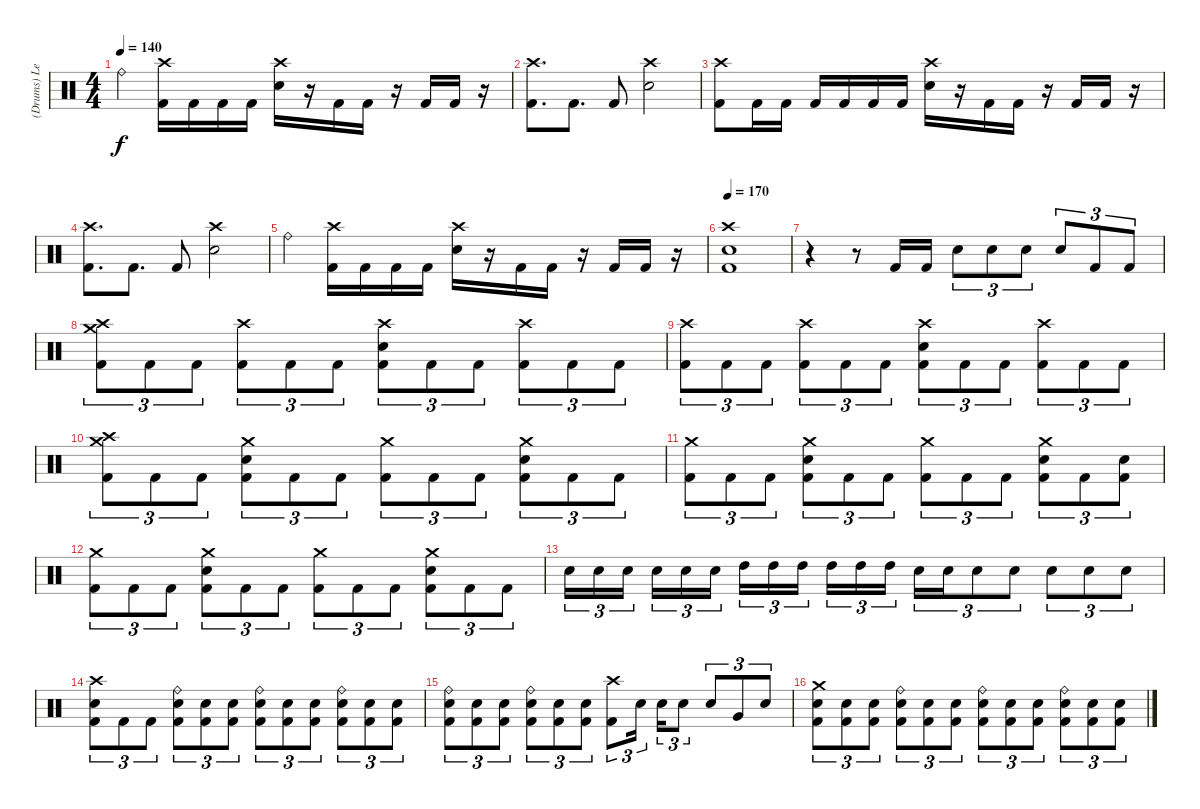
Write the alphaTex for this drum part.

\track ("(Drums) Leche" "(Drums) Le") {instrument percussion}
\staff {score}
\articulation defaults
\ts (4 4)
\tempo 140
\clef neutral
\ks c "Ride (bell)".4{dy f}
("Crash high (hit)" "Kick (hit) 2").16 "Kick (hit) 2".16 "Kick (hit) 2".16 "Kick (hit) 2".16 ("Crash high (hit)" "Electric Snare (hit)").16 r.16 "Kick (hit) 2".16 "Kick (hit) 2".16 r.16 "Kick (hit) 2".16 "Kick (hit) 2".16 r.16 |
("Crash high (hit)" "Kick (hit) 2").8{d} "Kick (hit) 2".8{d} "Kick (hit) 2".8 ("Crash high (hit)" "Electric Snare (hit)").2 |
("Crash high (hit)" "Kick (hit) 2").8 "Kick (hit) 2".16 "Kick (hit) 2".16 "Kick (hit) 2".16 "Kick (hit) 2".16 "Kick (hit) 2".16 "Kick (hit) 2".16 ("Crash high (hit)" "Electric Snare (hit)").16 r.16 "Kick (hit) 2".16 "Kick (hit) 2".16 r.16 "Kick (hit) 2".16 "Kick (hit) 2".16 r.16 |
("Crash high (hit)" "Kick (hit) 2").8{d} "Kick (hit) 2".8{d} "Kick (hit) 2".8 ("Crash high (hit)" "Electric Snare (hit)").2 |
"Ride (bell)".4 ("Crash high (hit)" "Kick (hit) 2").16 "Kick (hit) 2".16 "Kick (hit) 2".16 "Kick (hit) 2".16 ("Crash high (hit)" "Electric Snare (hit)").16 r.16 "Kick (hit) 2".16 "Kick (hit) 2".16 r.16 "Kick (hit) 2".16 "Kick (hit) 2".16 r.16 |
\tempo 170
("Crash high (hit)" "Electric Snare (hit)" "Kick (hit) 2").1 |
r.4 r.8 "Kick (hit) 2".16 "Kick (hit) 2".16 "Electric Snare (hit)".8{tu (3 2)} "Electric Snare (hit)".8{tu (3 2)} "Electric Snare (hit)".8{tu (3 2)} "Electric Snare (hit)".8{tu (3 2)} "Kick (hit) 2".8{tu (3 2)} "Kick (hit) 2".8{tu (3 2)} |
("Crash medium (hit)" "Crash high (hit)" "Kick (hit) 2").8{tu (3 2)} "Kick (hit) 2".8{tu (3 2)} "Kick (hit) 2".8{tu (3 2)} ("Crash high (hit)" "Kick (hit) 2").8{tu (3 2)} "Kick (hit) 2".8{tu (3 2)} "Kick (hit) 2".8{tu (3 2)} ("Crash high (hit)" "Electric Snare (hit)" "Kick (hit) 2").8{tu (3 2)} "Kick (hit) 2".8{tu (3 2)} "Kick (hit) 2".8{tu (3 2)} ("Crash high (hit)" "Kick (hit) 2").8{tu (3 2)} "Kick (hit) 2".8{tu (3 2)} "Kick (hit) 2".8{tu (3 2)} |
("Crash high (hit)" "Kick (hit) 2").8{tu (3 2)} "Kick (hit) 2".8{tu (3 2)} "Kick (hit) 2".8{tu (3 2)} ("Crash high (hit)" "Kick (hit) 2").8{tu (3 2)} "Kick (hit) 2".8{tu (3 2)} "Kick (hit) 2".8{tu (3 2)} ("Crash high (hit)" "Electric Snare (hit)" "Kick (hit) 2").8{tu (3 2)} "Kick (hit) 2".8{tu (3 2)} "Kick (hit) 2".8{tu (3 2)} ("Crash high (hit)" "Kick (hit) 2").8{tu (3 2)} "Kick (hit) 2".8{tu (3 2)} "Kick (hit) 2".8{tu (3 2)} |
("Crash high (hit)" "Crash medium (hit)" "Kick (hit) 2").8{tu (3 2)} "Kick (hit) 2".8{tu (3 2)} "Kick (hit) 2".8{tu (3 2)} ("Crash medium (hit)" "Electric Snare (hit)" "Kick (hit) 2").8{tu (3 2)} "Kick (hit) 2".8{tu (3 2)} "Kick (hit) 2".8{tu (3 2)} ("Crash medium (hit)" "Kick (hit) 2").8{tu (3 2)} "Kick (hit) 2".8{tu (3 2)} "Kick (hit) 2".8{tu (3 2)} ("Crash medium (hit)" "Electric Snare (hit)" "Kick (hit) 2").8{tu (3 2)} "Kick (hit) 2".8{tu (3 2)} "Kick (hit) 2".8{tu (3 2)} |
("Crash medium (hit)" "Kick (hit) 2").8{tu (3 2)} "Kick (hit) 2".8{tu (3 2)} "Kick (hit) 2".8{tu (3 2)} ("Crash medium (hit)" "Electric Snare (hit)" "Kick (hit) 2").8{tu (3 2)} "Kick (hit) 2".8{tu (3 2)} "Kick (hit) 2".8{tu (3 2)} ("Crash medium (hit)" "Kick (hit) 2").8{tu (3 2)} "Kick (hit) 2".8{tu (3 2)} "Kick (hit) 2".8{tu (3 2)} ("Crash medium (hit)" "Electric Snare (hit)" "Kick (hit) 2").8{tu (3 2)} "Kick (hit) 2".8{tu (3 2)} ("Electric Snare (hit)" "Kick (hit) 2").8{tu (3 2)} |
("Crash medium (hit)" "Kick (hit) 2").8{tu (3 2)} "Kick (hit) 2".8{tu (3 2)} "Kick (hit) 2".8{tu (3 2)} ("Crash medium (hit)" "Electric Snare (hit)" "Kick (hit) 2").8{tu (3 2)} "Kick (hit) 2".8{tu (3 2)} "Kick (hit) 2".8{tu (3 2)} ("Crash medium (hit)" "Kick (hit) 2").8{tu (3 2)} "Kick (hit) 2".8{tu (3 2)} "Kick (hit) 2".8{tu (3 2)} ("Crash medium (hit)" "Electric Snare (hit)" "Kick (hit) 2").8{tu (3 2)} "Kick (hit) 2".8{tu (3 2)} "Kick (hit) 2".8{tu (3 2)} |
"Electric Snare (hit)".16{tu (3 2)} "Electric Snare (hit)".16{tu (3 2)} "Electric Snare (hit)".16{tu (3 2) beam splitsecondary} "Electric Snare (hit)".16{tu (3 2)} "Electric Snare (hit)".16{tu (3 2)} "Electric Snare (hit)".16{tu (3 2)} "High Tom (hit)".16{tu (3 2)} "High Tom (hit)".16{tu (3 2)} "High Tom (hit)".16{tu (3 2) beam splitsecondary} "High Tom (hit)".16{tu (3 2)} "High Tom (hit)".16{tu (3 2)} "High Tom (hit)".16{tu (3 2)} "Electric Snare (hit)".16{tu (3 2)} "Electric Snare (hit)".16{tu (3 2)} "Electric Snare (hit)".8{tu (3 2)} "Electric Snare (hit)".8{tu (3 2)} "Electric Snare (hit)".8{tu (3 2)} "Electric Snare (hit)".8{tu (3 2)} "Electric Snare (hit)".8{tu (3 2)} |
("Crash high (hit)" "Electric Snare (hit)" "Kick (hit) 2").8{tu (3 2)} "Kick (hit) 2".8{tu (3 2)} "Kick (hit) 2".8{tu (3 2)} ("Ride (bell)" "Electric Snare (hit)" "Kick (hit) 2").8{tu (3 2)} ("Electric Snare (hit)" "Kick (hit) 2").8{tu (3 2)} ("Electric Snare (hit)" "Kick (hit) 2").8{tu (3 2)} ("Ride (bell)" "Electric Snare (hit)" "Kick (hit) 2").8{tu (3 2)} ("Electric Snare (hit)" "Kick (hit) 2").8{tu (3 2)} ("Electric Snare (hit)" "Kick (hit) 2").8{tu (3 2)} ("Ride (bell)" "Electric Snare (hit)" "Kick (hit) 2").8{tu (3 2)} ("Electric Snare (hit)" "Kick (hit) 2").8{tu (3 2)} ("Electric Snare (hit)" "Kick (hit) 2").8{tu (3 2)} |
("Ride (bell)" "Electric Snare (hit)" "Kick (hit) 2").8{tu (3 2)} ("Electric Snare (hit)" "Kick (hit) 2").8{tu (3 2)} ("Electric Snare (hit)" "Kick (hit) 2").8{tu (3 2)} ("Ride (bell)" "Electric Snare (hit)" "Kick (hit) 2").8{tu (3 2)} ("Electric Snare (hit)" "Kick (hit) 2").8{tu (3 2)} ("Electric Snare (hit)" "Kick (hit) 2").8{tu (3 2)} ("Crash high (hit)" "Kick (hit) 2").8{tu (3 2)} "Electric Snare (hit)".16{tu (3 2) beam splitsecondary} "Electric Snare (hit)".16{tu (3 2)} "Electric Snare (hit)".8{tu (3 2)} "Electric Snare (hit)".8{tu (3 2)} "Very Low Tom (hit)".8{tu (3 2)} "Electric Snare (hit)".8{tu (3 2)} |
("Crash medium (hit)" "Electric Snare (hit)" "Kick (hit) 2").8{tu (3 2)} ("Electric Snare (hit)" "Kick (hit) 2").8{tu (3 2)} ("Electric Snare (hit)" "Kick (hit) 2").8{tu (3 2)} ("Ride (bell)" "Electric Snare (hit)" "Kick (hit) 2").8{tu (3 2)} ("Electric Snare (hit)" "Kick (hit) 2").8{tu (3 2)} ("Electric Snare (hit)" "Kick (hit) 2").8{tu (3 2)} ("Ride (bell)" "Electric Snare (hit)" "Kick (hit) 2").8{tu (3 2)} ("Electric Snare (hit)" "Kick (hit) 2").8{tu (3 2)} ("Electric Snare (hit)" "Kick (hit) 2").8{tu (3 2)} ("Ride (bell)" "Electric Snare (hit)" "Kick (hit) 2").8{tu (3 2)} ("Electric Snare (hit)" "Kick (hit) 2").8{tu (3 2)} ("Electric Snare (hit)" "Kick (hit) 2").8{tu (3 2)}
